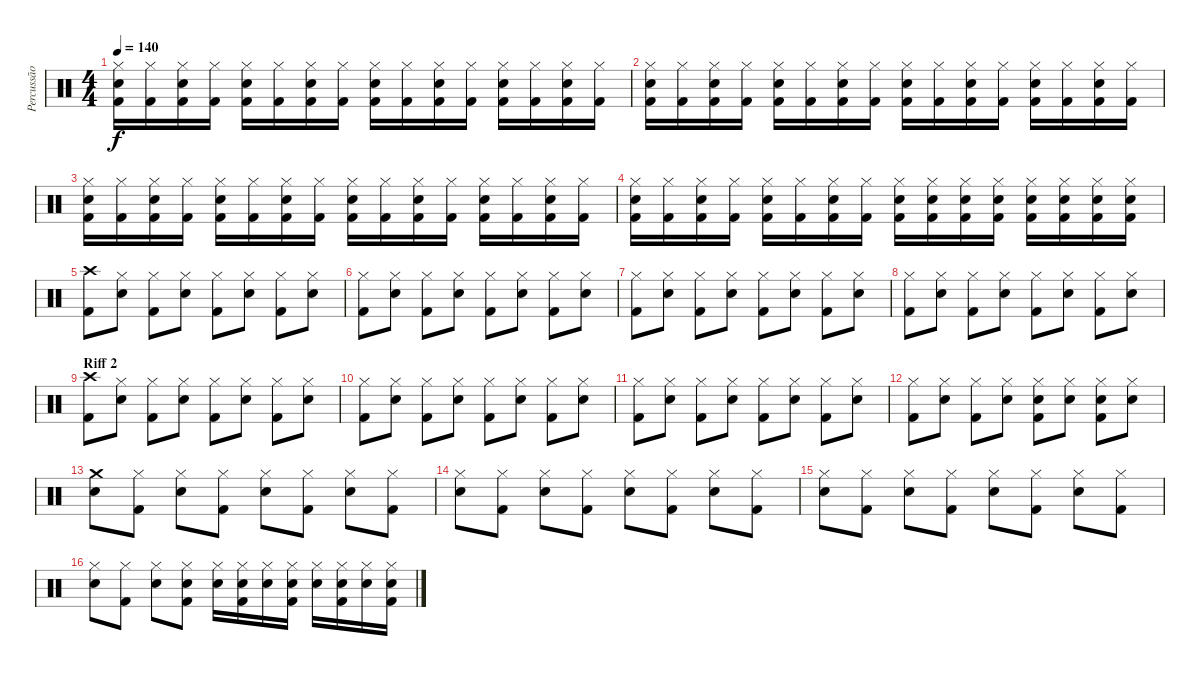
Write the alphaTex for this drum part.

\track ("Percussão" "Percussão") {instrument percussion}
\staff {score}
\articulation defaults
\ts (4 4)
\tempo 140
\clef neutral
\ks c
("Hi-Hat (closed)" "Snare (hit) 2" "Kick (hit) 2").16{dy f} ("Hi-Hat (closed)" "Kick (hit) 2").16 ("Hi-Hat (closed)" "Snare (hit) 2" "Kick (hit) 2").16 ("Hi-Hat (closed)" "Kick (hit) 2").16 ("Hi-Hat (closed)" "Snare (hit) 2" "Kick (hit) 2").16 ("Hi-Hat (closed)" "Kick (hit) 2").16 ("Hi-Hat (closed)" "Snare (hit) 2" "Kick (hit) 2").16 ("Hi-Hat (closed)" "Kick (hit) 2").16 ("Hi-Hat (closed)" "Snare (hit) 2" "Kick (hit) 2").16 ("Hi-Hat (closed)" "Kick (hit) 2").16 ("Hi-Hat (closed)" "Snare (hit) 2" "Kick (hit) 2").16 ("Hi-Hat (closed)" "Kick (hit) 2").16 ("Hi-Hat (closed)" "Snare (hit) 2" "Kick (hit) 2").16 ("Hi-Hat (closed)" "Kick (hit) 2").16 ("Hi-Hat (closed)" "Snare (hit) 2" "Kick (hit) 2").16 ("Hi-Hat (closed)" "Kick (hit) 2").16 |
("Hi-Hat (closed)" "Snare (hit) 2" "Kick (hit) 2").16 ("Hi-Hat (closed)" "Kick (hit) 2").16 ("Hi-Hat (closed)" "Snare (hit) 2" "Kick (hit) 2").16 ("Hi-Hat (closed)" "Kick (hit) 2").16 ("Hi-Hat (closed)" "Snare (hit) 2" "Kick (hit) 2").16 ("Hi-Hat (closed)" "Kick (hit) 2").16 ("Hi-Hat (closed)" "Snare (hit) 2" "Kick (hit) 2").16 ("Hi-Hat (closed)" "Kick (hit) 2").16 ("Hi-Hat (closed)" "Snare (hit) 2" "Kick (hit) 2").16 ("Hi-Hat (closed)" "Kick (hit) 2").16 ("Hi-Hat (closed)" "Snare (hit) 2" "Kick (hit) 2").16 ("Hi-Hat (closed)" "Kick (hit) 2").16 ("Hi-Hat (closed)" "Snare (hit) 2" "Kick (hit) 2").16 ("Hi-Hat (closed)" "Kick (hit) 2").16 ("Hi-Hat (closed)" "Snare (hit) 2" "Kick (hit) 2").16 ("Hi-Hat (closed)" "Kick (hit) 2").16 |
("Hi-Hat (closed)" "Snare (hit) 2" "Kick (hit) 2").16 ("Hi-Hat (closed)" "Kick (hit) 2").16 ("Hi-Hat (closed)" "Snare (hit) 2" "Kick (hit) 2").16 ("Hi-Hat (closed)" "Kick (hit) 2").16 ("Hi-Hat (closed)" "Snare (hit) 2" "Kick (hit) 2").16 ("Hi-Hat (closed)" "Kick (hit) 2").16 ("Hi-Hat (closed)" "Snare (hit) 2" "Kick (hit) 2").16 ("Hi-Hat (closed)" "Kick (hit) 2").16 ("Hi-Hat (closed)" "Snare (hit) 2" "Kick (hit) 2").16 ("Hi-Hat (closed)" "Kick (hit) 2").16 ("Hi-Hat (closed)" "Snare (hit) 2" "Kick (hit) 2").16 ("Hi-Hat (closed)" "Kick (hit) 2").16 ("Hi-Hat (closed)" "Snare (hit) 2" "Kick (hit) 2").16 ("Hi-Hat (closed)" "Kick (hit) 2").16 ("Hi-Hat (closed)" "Snare (hit) 2" "Kick (hit) 2").16 ("Hi-Hat (closed)" "Kick (hit) 2").16 |
("Hi-Hat (closed)" "Snare (hit) 2" "Kick (hit) 2").16 ("Hi-Hat (closed)" "Kick (hit) 2").16 ("Hi-Hat (closed)" "Snare (hit) 2" "Kick (hit) 2").16 ("Hi-Hat (closed)" "Kick (hit) 2").16 ("Hi-Hat (closed)" "Snare (hit) 2" "Kick (hit) 2").16 ("Hi-Hat (closed)" "Kick (hit) 2").16 ("Hi-Hat (closed)" "Snare (hit) 2" "Kick (hit) 2").16 ("Hi-Hat (closed)" "Kick (hit) 2").16 ("Hi-Hat (closed)" "Snare (hit) 2" "Kick (hit) 2").16 ("Hi-Hat (closed)" "Snare (hit) 2" "Kick (hit) 2").16 ("Hi-Hat (closed)" "Snare (hit) 2" "Kick (hit) 2").16 ("Hi-Hat (closed)" "Snare (hit) 2" "Kick (hit) 2").16 ("Hi-Hat (closed)" "Snare (hit) 2" "Kick (hit) 2").16 ("Hi-Hat (closed)" "Snare (hit) 2" "Kick (hit) 2").16 ("Hi-Hat (closed)" "Snare (hit) 2" "Kick (hit) 2").16 ("Hi-Hat (closed)" "Snare (hit) 2" "Kick (hit) 2").16 |
("Crash high (hit)" "Kick (hit) 2").8 ("Hi-Hat (closed)" "Snare (hit) 2").8 ("Hi-Hat (closed)" "Kick (hit) 2").8 ("Hi-Hat (closed)" "Snare (hit) 2").8 ("Hi-Hat (closed)" "Kick (hit) 2").8 ("Hi-Hat (closed)" "Snare (hit) 2").8 ("Hi-Hat (closed)" "Kick (hit) 2").8 ("Hi-Hat (closed)" "Snare (hit) 2").8 |
("Hi-Hat (closed)" "Kick (hit) 2").8 ("Hi-Hat (closed)" "Snare (hit) 2").8 ("Hi-Hat (closed)" "Kick (hit) 2").8 ("Hi-Hat (closed)" "Snare (hit) 2").8 ("Hi-Hat (closed)" "Kick (hit) 2").8 ("Hi-Hat (closed)" "Snare (hit) 2").8 ("Hi-Hat (closed)" "Kick (hit) 2").8 ("Hi-Hat (closed)" "Snare (hit) 2").8 |
("Hi-Hat (closed)" "Kick (hit) 2").8 ("Hi-Hat (closed)" "Snare (hit) 2").8 ("Hi-Hat (closed)" "Kick (hit) 2").8 ("Hi-Hat (closed)" "Snare (hit) 2").8 ("Hi-Hat (closed)" "Kick (hit) 2").8 ("Hi-Hat (closed)" "Snare (hit) 2").8 ("Hi-Hat (closed)" "Kick (hit) 2").8 ("Hi-Hat (closed)" "Snare (hit) 2").8 |
("Hi-Hat (closed)" "Kick (hit) 2").8 ("Hi-Hat (closed)" "Snare (hit) 2").8 ("Hi-Hat (closed)" "Kick (hit) 2").8 ("Hi-Hat (closed)" "Snare (hit) 2").8 ("Hi-Hat (closed)" "Kick (hit) 2").8 ("Hi-Hat (closed)" "Snare (hit) 2").8 ("Hi-Hat (closed)" "Kick (hit) 2").8 ("Hi-Hat (closed)" "Snare (hit) 2").8 |
\section ("" "Riff 2")
("Crash high (hit)" "Kick (hit) 2").8 ("Hi-Hat (closed)" "Snare (hit) 2").8 ("Hi-Hat (closed)" "Kick (hit) 2").8 ("Hi-Hat (closed)" "Snare (hit) 2").8 ("Hi-Hat (closed)" "Kick (hit) 2").8 ("Hi-Hat (closed)" "Snare (hit) 2").8 ("Hi-Hat (closed)" "Kick (hit) 2").8 ("Hi-Hat (closed)" "Snare (hit) 2").8 |
("Hi-Hat (closed)" "Kick (hit) 2").8 ("Hi-Hat (closed)" "Snare (hit) 2").8 ("Hi-Hat (closed)" "Kick (hit) 2").8 ("Hi-Hat (closed)" "Snare (hit) 2").8 ("Hi-Hat (closed)" "Kick (hit) 2").8 ("Hi-Hat (closed)" "Snare (hit) 2").8 ("Hi-Hat (closed)" "Kick (hit) 2").8 ("Hi-Hat (closed)" "Snare (hit) 2").8 |
("Hi-Hat (closed)" "Kick (hit) 2").8 ("Hi-Hat (closed)" "Snare (hit) 2").8 ("Hi-Hat (closed)" "Kick (hit) 2").8 ("Hi-Hat (closed)" "Snare (hit) 2").8 ("Hi-Hat (closed)" "Kick (hit) 2").8 ("Hi-Hat (closed)" "Snare (hit) 2").8 ("Hi-Hat (closed)" "Kick (hit) 2").8 ("Hi-Hat (closed)" "Snare (hit) 2").8 |
("Hi-Hat (closed)" "Kick (hit) 2").8 ("Hi-Hat (closed)" "Snare (hit) 2").8 ("Hi-Hat (closed)" "Kick (hit) 2").8 ("Hi-Hat (closed)" "Snare (hit) 2").8 ("Hi-Hat (closed)" "Snare (hit) 2" "Kick (hit) 2").8 ("Hi-Hat (closed)" "Snare (hit) 2").8 ("Hi-Hat (closed)" "Snare (hit) 2" "Kick (hit) 2").8 ("Hi-Hat (closed)" "Snare (hit) 2").8 |
("Crash medium (hit)" "Snare (hit) 2").8 ("Hi-Hat (closed)" "Kick (hit) 2").8 ("Hi-Hat (closed)" "Snare (hit) 2").8 ("Hi-Hat (closed)" "Kick (hit) 2").8 ("Hi-Hat (closed)" "Snare (hit) 2").8 ("Hi-Hat (closed)" "Kick (hit) 2").8 ("Hi-Hat (closed)" "Snare (hit) 2").8 ("Hi-Hat (closed)" "Kick (hit) 2").8 |
("Hi-Hat (closed)" "Snare (hit) 2").8 ("Hi-Hat (closed)" "Kick (hit) 2").8 ("Hi-Hat (closed)" "Snare (hit) 2").8 ("Hi-Hat (closed)" "Kick (hit) 2").8 ("Hi-Hat (closed)" "Snare (hit) 2").8 ("Hi-Hat (closed)" "Kick (hit) 2").8 ("Hi-Hat (closed)" "Snare (hit) 2").8 ("Hi-Hat (closed)" "Kick (hit) 2").8 |
("Hi-Hat (closed)" "Snare (hit) 2").8 ("Hi-Hat (closed)" "Kick (hit) 2").8 ("Hi-Hat (closed)" "Snare (hit) 2").8 ("Hi-Hat (closed)" "Kick (hit) 2").8 ("Hi-Hat (closed)" "Snare (hit) 2").8 ("Hi-Hat (closed)" "Kick (hit) 2").8 ("Hi-Hat (closed)" "Snare (hit) 2").8 ("Hi-Hat (closed)" "Kick (hit) 2").8 |
("Hi-Hat (closed)" "Snare (hit) 2").8 ("Hi-Hat (closed)" "Kick (hit) 2").8 ("Hi-Hat (closed)" "Snare (hit) 2").8 ("Hi-Hat (closed)" "Snare (hit) 2" "Kick (hit) 2").8 ("Hi-Hat (closed)" "Electric Snare (hit)").16 ("Hi-Hat (closed)" "Electric Snare (hit)" "Kick (hit) 2").16 ("Hi-Hat (closed)" "Electric Snare (hit)").16 ("Hi-Hat (closed)" "Electric Snare (hit)" "Kick (hit) 2").16 ("Hi-Hat (closed)" "Snare (hit) 2").16 ("Hi-Hat (closed)" "Snare (hit) 2" "Kick (hit) 2").16 ("Hi-Hat (closed)" "Snare (hit) 2").16 ("Hi-Hat (closed)" "Snare (hit) 2" "Kick (hit) 2").16
